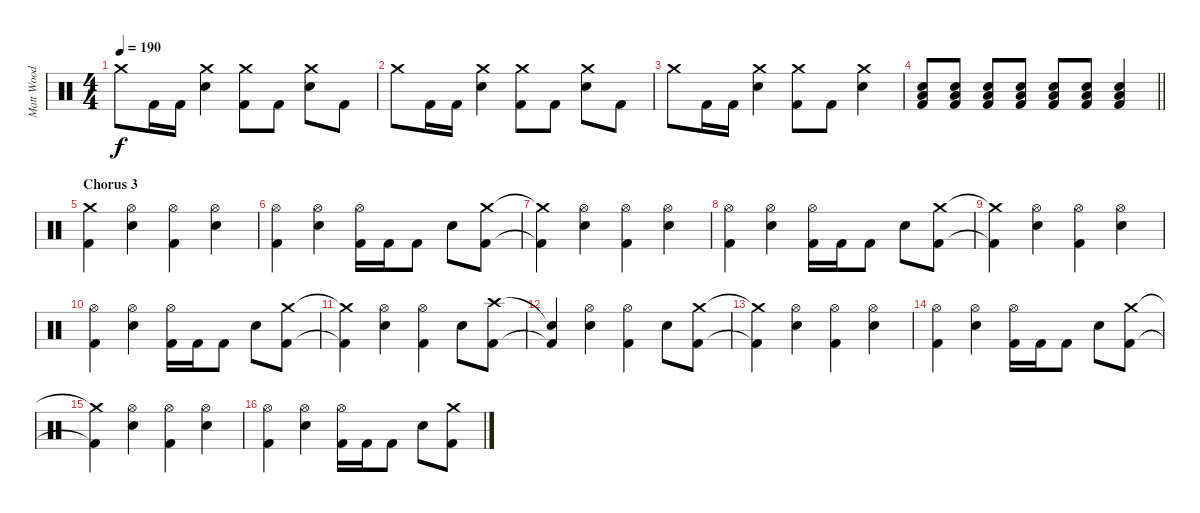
\track ("Matt Wood" "Matt Wood") {instrument percussion}
\staff {score}
\articulation defaults
\ts (4 4)
\tempo 190
\clef neutral
\ks c "Crash medium (hit)".8{dy f} "Kick (hit) 2".16 "Kick (hit) 2".16
("Crash medium (hit)" "Snare (hit) 2").4 ("Crash medium (hit)" "Kick (hit) 2").8 "Kick (hit) 2".8 ("Crash medium (hit)" "Snare (hit) 2").8 "Kick (hit) 2".8 |
"Crash medium (hit)".8 "Kick (hit) 2".16 "Kick (hit) 2".16 ("Crash medium (hit)" "Snare (hit) 2").4 ("Crash medium (hit)" "Kick (hit) 2").8 "Kick (hit) 2".8 ("Crash medium (hit)" "Snare (hit) 2").8 "Kick (hit) 2".8 |
"Crash medium (hit)".8 "Kick (hit) 2".16 "Kick (hit) 2".16 ("Crash medium (hit)" "Snare (hit) 2").4 ("Crash medium (hit)" "Kick (hit) 2").8 "Kick (hit) 2".8 ("Crash medium (hit)" "Snare (hit) 2").4 |
\barLineRight lightlight
("Low Tom (hit)" "Snare (hit) 2" "Kick (hit) 2").8 ("Low Tom (hit)" "Snare (hit) 2" "Kick (hit) 2").8 ("Low Tom (hit)" "Snare (hit) 2" "Kick (hit) 2").8 ("Low Tom (hit)" "Snare (hit) 2" "Kick (hit) 2").8 ("Low Tom (hit)" "Snare (hit) 2" "Kick (hit) 2").8 ("Low Tom (hit)" "Snare (hit) 2" "Kick (hit) 2").8 ("Low Tom (hit)" "Snare (hit) 2" "Kick (hit) 2").4 |
\section ("" "Chorus 3")
("Crash medium (hit)" "Kick (hit) 2").4 ("Hi-Hat (open)" "Snare (hit) 2").4 ("Hi-Hat (open)" "Kick (hit) 2").4 ("Hi-Hat (open)" "Snare (hit) 2").4 |
("Hi-Hat (open)" "Kick (hit) 2").4 ("Hi-Hat (open)" "Snare (hit) 2").4 ("Hi-Hat (open)" "Kick (hit) 2").16 "Kick (hit) 2".16 "Kick (hit) 2".8 "Snare (hit) 2".8 ("Crash medium (hit)" "Kick (hit) 2").8 |
("Crash medium (hit)"{t} "Kick (hit) 2"{t}).4 ("Hi-Hat (open)" "Snare (hit) 2").4 ("Hi-Hat (open)" "Kick (hit) 2").4 ("Hi-Hat (open)" "Snare (hit) 2").4 |
("Hi-Hat (open)" "Kick (hit) 2").4 ("Hi-Hat (open)" "Snare (hit) 2").4 ("Hi-Hat (open)" "Kick (hit) 2").16 "Kick (hit) 2".16 "Kick (hit) 2".8 "Snare (hit) 2".8 ("Crash medium (hit)" "Kick (hit) 2").8 |
("Crash medium (hit)"{t} "Kick (hit) 2"{t}).4 ("Hi-Hat (open)" "Snare (hit) 2").4 ("Hi-Hat (open)" "Kick (hit) 2").4 ("Hi-Hat (open)" "Snare (hit) 2").4 |
("Hi-Hat (open)" "Kick (hit) 2").4 ("Hi-Hat (open)" "Snare (hit) 2").4 ("Hi-Hat (open)" "Kick (hit) 2").16 "Kick (hit) 2".16 "Kick (hit) 2".8 "Snare (hit) 2".8 ("Crash medium (hit)" "Kick (hit) 2").8 |
("Crash medium (hit)"{t} "Kick (hit) 2"{t}).4 ("Hi-Hat (open)" "Snare (hit) 2").4 ("Hi-Hat (open)" "Kick (hit) 2").4 "Snare (hit) 2".8 ("Crash high (hit)" "Kick (hit) 2").8 |
("Snare (hit)"{t} "Kick (hit) 2"{t}).4 ("Hi-Hat (open)" "Snare (hit) 2").4 ("Hi-Hat (open)" "Kick (hit) 2").4 "Snare (hit) 2".8 ("Crash medium (hit)" "Kick (hit) 2").8 |
("Crash medium (hit)"{t} "Kick (hit) 2"{t}).4 ("Hi-Hat (open)" "Snare (hit) 2").4 ("Hi-Hat (open)" "Kick (hit) 2").4 ("Hi-Hat (open)" "Snare (hit) 2").4 |
("Hi-Hat (open)" "Kick (hit) 2").4 ("Hi-Hat (open)" "Snare (hit) 2").4 ("Hi-Hat (open)" "Kick (hit) 2").16 "Kick (hit) 2".16 "Kick (hit) 2".8 "Snare (hit) 2".8 ("Crash medium (hit)" "Kick (hit) 2").8 |
("Crash medium (hit)"{t} "Kick (hit) 2"{t}).4 ("Hi-Hat (open)" "Snare (hit) 2").4 ("Hi-Hat (open)" "Kick (hit) 2").4 ("Hi-Hat (open)" "Snare (hit) 2").4 |
("Hi-Hat (open)" "Kick (hit) 2").4 ("Hi-Hat (open)" "Snare (hit) 2").4 ("Hi-Hat (open)" "Kick (hit) 2").16 "Kick (hit) 2".16 "Kick (hit) 2".8 "Snare (hit) 2".8 ("Crash medium (hit)" "Kick (hit) 2").8
